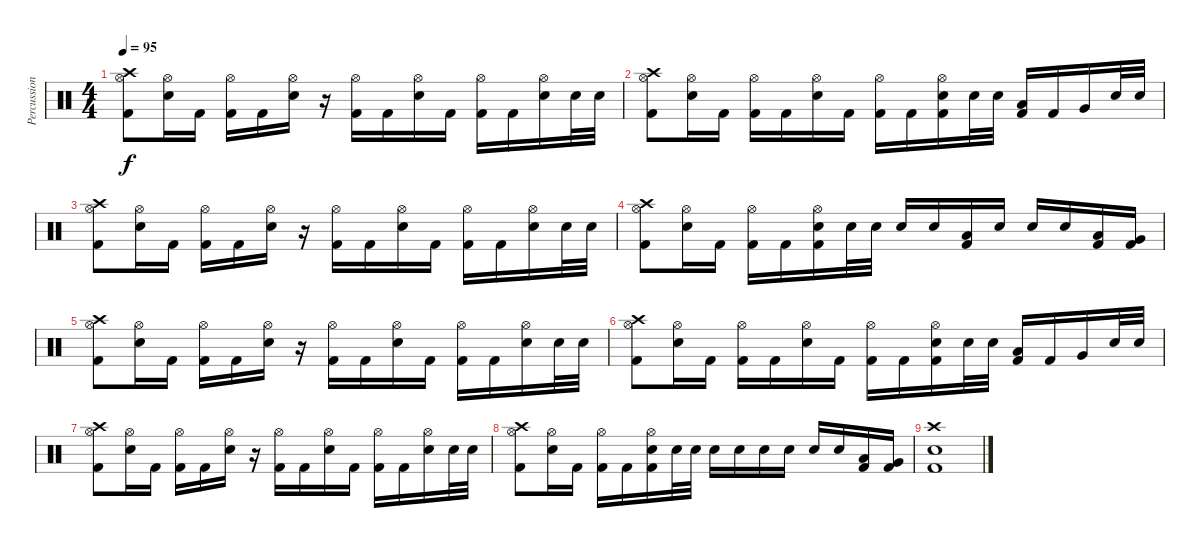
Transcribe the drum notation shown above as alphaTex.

\track ("Percussion" "Percussion") {instrument percussion}
\staff {score}
\articulation defaults
\ts (4 4)
\tempo 95
\clef neutral
\ks c
("Crash high (hit)" "Hi-Hat (open)" "Kick (hit) 2").8{dy f} ("Hi-Hat (open)" "Electric Snare (hit)").16 "Kick (hit) 2".16 ("Hi-Hat (open)" "Kick (hit) 2").16 "Kick (hit) 2".16 ("Hi-Hat (open)" "Electric Snare (hit)").16 r.16 ("Hi-Hat (open)" "Kick (hit) 2").16 "Kick (hit) 2".16 ("Hi-Hat (open)" "Electric Snare (hit)").16 "Kick (hit) 2".16 ("Hi-Hat (open)" "Kick (hit) 2").16 "Kick (hit) 2".16 ("Hi-Hat (open)" "Electric Snare (hit)").16 "Electric Snare (hit)".32 "Electric Snare (hit)".32 |
("Crash high (hit)" "Hi-Hat (open)" "Kick (hit) 2").8 ("Hi-Hat (open)" "Electric Snare (hit)").16 "Kick (hit) 2".16 ("Hi-Hat (open)" "Kick (hit) 2").16 "Kick (hit) 2".16 ("Hi-Hat (open)" "Electric Snare (hit)").16 "Kick (hit) 2".16 ("Hi-Hat (open)" "Kick (hit) 2").16 "Kick (hit) 2".16 ("Hi-Hat (open)" "Electric Snare (hit)" "Kick (hit) 2").16 "Electric Snare (hit)".32 "Electric Snare (hit)".32 ("Low Tom (hit)" "Kick (hit) 2").16 "Kick (hit) 2".16 "Very Low Tom (hit)".16 "Electric Snare (hit)".32 "Electric Snare (hit)".32 |
("Crash high (hit)" "Hi-Hat (open)" "Kick (hit) 2").8 ("Hi-Hat (open)" "Electric Snare (hit)").16 "Kick (hit) 2".16 ("Hi-Hat (open)" "Kick (hit) 2").16 "Kick (hit) 2".16 ("Hi-Hat (open)" "Electric Snare (hit)").16 r.16 ("Hi-Hat (open)" "Kick (hit) 2").16 "Kick (hit) 2".16 ("Hi-Hat (open)" "Electric Snare (hit)").16 "Kick (hit) 2".16 ("Hi-Hat (open)" "Kick (hit) 2").16 "Kick (hit) 2".16 ("Hi-Hat (open)" "Electric Snare (hit)").16 "Electric Snare (hit)".32 "Electric Snare (hit)".32 |
("Crash high (hit)" "Hi-Hat (open)" "Kick (hit) 2").8 ("Hi-Hat (open)" "Electric Snare (hit)").16 "Kick (hit) 2".16 ("Hi-Hat (open)" "Kick (hit) 2").16 "Kick (hit) 2".16 ("Hi-Hat (open)" "Electric Snare (hit)" "Kick (hit) 2").16 "Electric Snare (hit)".32 "Electric Snare (hit)".32 "Electric Snare (hit)".16 "Electric Snare (hit)".16 ("Low Tom (hit)" "Kick (hit) 2").16 "Electric Snare (hit)".16 "Electric Snare (hit)".16 "Electric Snare (hit)".16 ("Low Tom (hit)" "Kick (hit) 2").16 ("Very Low Tom (hit)" "Kick (hit) 2").16 |
("Crash high (hit)" "Hi-Hat (open)" "Kick (hit) 2").8 ("Hi-Hat (open)" "Electric Snare (hit)").16 "Kick (hit) 2".16 ("Hi-Hat (open)" "Kick (hit) 2").16 "Kick (hit) 2".16 ("Hi-Hat (open)" "Electric Snare (hit)").16 r.16 ("Hi-Hat (open)" "Kick (hit) 2").16 "Kick (hit) 2".16 ("Hi-Hat (open)" "Electric Snare (hit)").16 "Kick (hit) 2".16 ("Hi-Hat (open)" "Kick (hit) 2").16 "Kick (hit) 2".16 ("Hi-Hat (open)" "Electric Snare (hit)").16 "Electric Snare (hit)".32 "Electric Snare (hit)".32 |
("Crash high (hit)" "Hi-Hat (open)" "Kick (hit) 2").8 ("Hi-Hat (open)" "Electric Snare (hit)").16 "Kick (hit) 2".16 ("Hi-Hat (open)" "Kick (hit) 2").16 "Kick (hit) 2".16 ("Hi-Hat (open)" "Electric Snare (hit)").16 "Kick (hit) 2".16 ("Hi-Hat (open)" "Kick (hit) 2").16 "Kick (hit) 2".16 ("Hi-Hat (open)" "Electric Snare (hit)" "Kick (hit) 2").16 "Electric Snare (hit)".32 "Electric Snare (hit)".32 ("Low Tom (hit)" "Kick (hit) 2").16 "Kick (hit) 2".16 "Very Low Tom (hit)".16 "Electric Snare (hit)".32 "Electric Snare (hit)".32 |
("Crash high (hit)" "Hi-Hat (open)" "Kick (hit) 2").8 ("Hi-Hat (open)" "Electric Snare (hit)").16 "Kick (hit) 2".16 ("Hi-Hat (open)" "Kick (hit) 2").16 "Kick (hit) 2".16 ("Hi-Hat (open)" "Electric Snare (hit)").16 r.16 ("Hi-Hat (open)" "Kick (hit) 2").16 "Kick (hit) 2".16 ("Hi-Hat (open)" "Electric Snare (hit)").16 "Kick (hit) 2".16 ("Hi-Hat (open)" "Kick (hit) 2").16 "Kick (hit) 2".16 ("Hi-Hat (open)" "Electric Snare (hit)").16 "Electric Snare (hit)".32 "Electric Snare (hit)".32 |
("Crash high (hit)" "Hi-Hat (open)" "Kick (hit) 2").8 ("Hi-Hat (open)" "Electric Snare (hit)").16 "Kick (hit) 2".16 ("Hi-Hat (open)" "Kick (hit) 2").16 "Kick (hit) 2".16 ("Hi-Hat (open)" "Electric Snare (hit)" "Kick (hit) 2").16 "Electric Snare (hit)".32 "Electric Snare (hit)".32 "Electric Snare (hit)".16 "Electric Snare (hit)".16 "Electric Snare (hit)".16 "Electric Snare (hit)".16 "Electric Snare (hit)".16 "Electric Snare (hit)".16 ("Low Tom (hit)" "Kick (hit) 2").16 ("Very Low Tom (hit)" "Kick (hit) 2").16 |
("Crash high (hit)" "Electric Snare (hit)" "Kick (hit) 2").1
